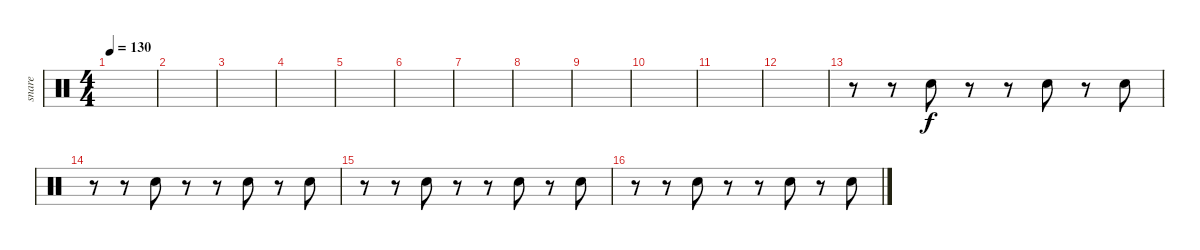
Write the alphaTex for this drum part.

\track ("snare" "snare") {instrument percussion}
\staff {score}
\articulation defaults
\ts (4 4)
\tempo 130
\clef neutral
\ks c
|
|
|
|
|
|
|
|
|
|
|
|
r.8 r.8 "Snare (hit) 2".8 r.8 r.8 "Snare (hit) 2".8 r.8 "Snare (hit) 2".8 |
r.8 r.8 "Snare (hit) 2".8 r.8 r.8 "Snare (hit) 2".8 r.8 "Snare (hit) 2".8 |
r.8 r.8 "Snare (hit) 2".8 r.8 r.8 "Snare (hit) 2".8 r.8 "Snare (hit) 2".8 |
r.8 r.8 "Snare (hit) 2".8 r.8 r.8 "Snare (hit) 2".8 r.8 "Snare (hit) 2".8
